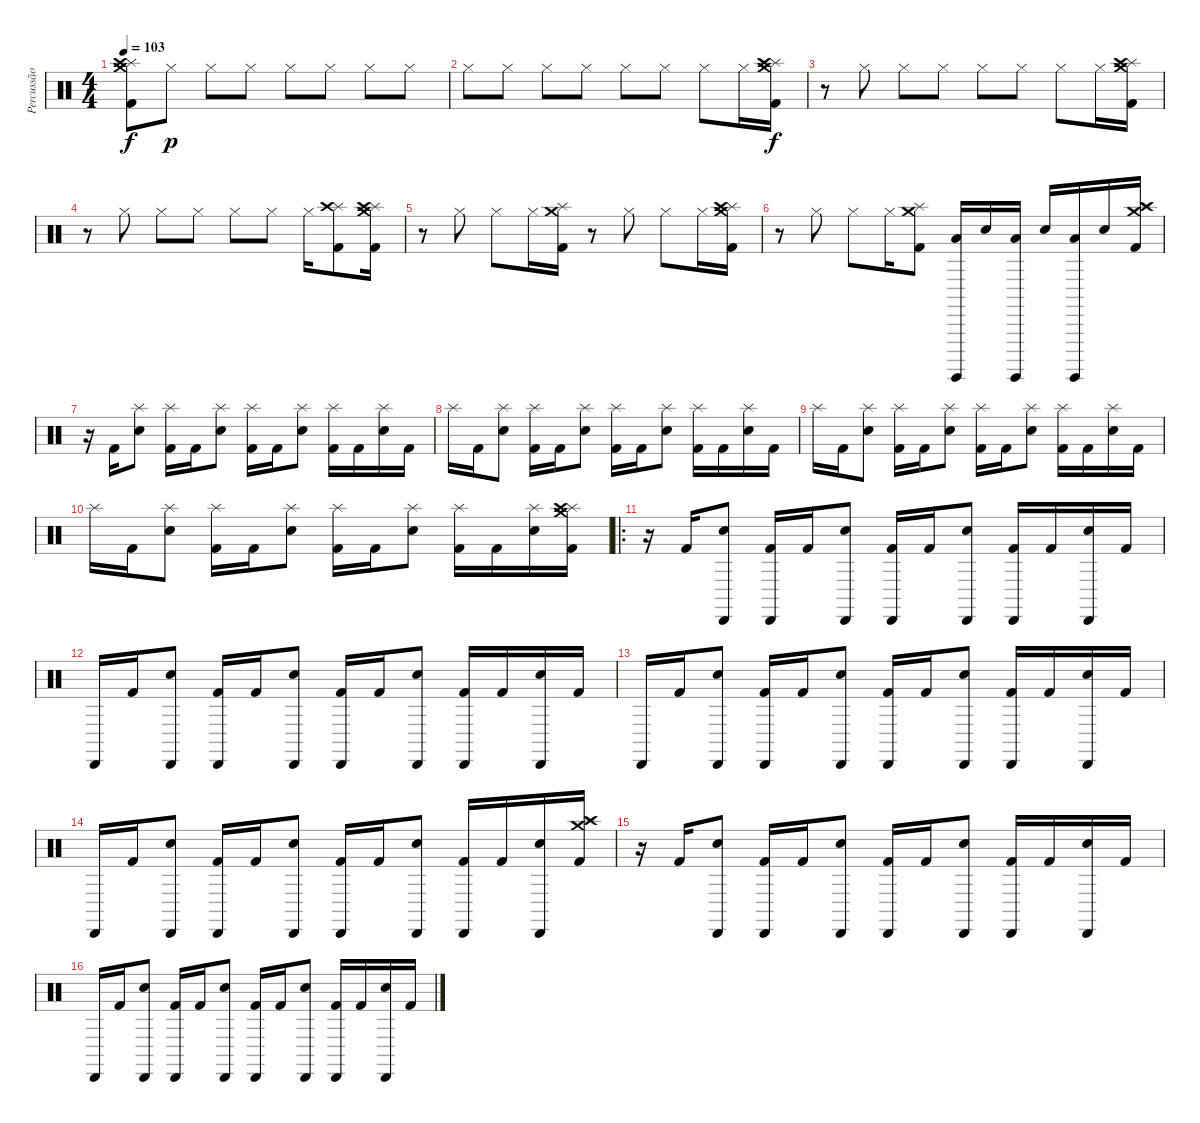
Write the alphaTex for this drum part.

\track ("Percussão" "Percussão") {instrument percussion}
\staff {score}
\articulation defaults
\ts (4 4)
\tempo 103
\clef neutral
\ks c
("Crash medium (hit)" "Splash (hit)" "Crash high (hit)" "Kick (hit) 2").8{dy f} "Hi-Hat (closed)".8{dy p} "Hi-Hat (closed)".8 "Hi-Hat (closed)".8 "Hi-Hat (closed)".8 "Hi-Hat (closed)".8 "Hi-Hat (closed)".8 "Hi-Hat (closed)".8 |
"Hi-Hat (closed)".8 "Hi-Hat (closed)".8 "Hi-Hat (closed)".8 "Hi-Hat (closed)".8 "Hi-Hat (closed)".8 "Hi-Hat (closed)".8 "Hi-Hat (closed)".8 "Hi-Hat (closed)".16 ("Crash medium (hit)" "Splash (hit)" "Crash high (hit)" "Kick (hit) 2").16{dy f} |
r.8 "Hi-Hat (closed)".8 "Hi-Hat (closed)".8 "Hi-Hat (closed)".8 "Hi-Hat (closed)".8 "Hi-Hat (closed)".8 "Hi-Hat (closed)".8 "Hi-Hat (closed)".16 ("Crash medium (hit)" "Splash (hit)" "Crash high (hit)" "Kick (hit) 2").16 |
r.8 "Hi-Hat (closed)".8 "Hi-Hat (closed)".8 "Hi-Hat (closed)".8 "Hi-Hat (closed)".8 "Hi-Hat (closed)".8 "Hi-Hat (closed)".16 ("Splash (hit)" "Crash high (hit)" "Kick (hit) 2").8 ("Crash medium (hit)" "Splash (hit)" "Crash high (hit)" "Kick (hit) 2").16 |
r.8 "Hi-Hat (closed)".8 "Hi-Hat (closed)".8 "Hi-Hat (closed)".16 ("Crash medium (hit)" "Splash (hit)" "Kick (hit) 2").16 r.8 "Hi-Hat (closed)".8 "Hi-Hat (closed)".8 "Hi-Hat (closed)".16 ("Crash medium (hit)" "Splash (hit)" "Crash high (hit)" "Kick (hit) 2").16 |
r.8 "Hi-Hat (closed)".8 "Hi-Hat (closed)".8 "Hi-Hat (closed)".16 ("Crash medium (hit)" "Splash (hit)" "Kick (hit) 2").8 ("Surdo (hit)" "Low Floor Tom (hit)").16 "Electric Snare (hit)".16 ("Surdo (hit)" "Low Floor Tom (hit)").16 "Electric Snare (hit)".16 ("Surdo (hit)" "Low Floor Tom (hit)").16 "Electric Snare (hit)".16 ("Crash medium (hit)" "Splash (hit)" "Crash high (hit)" "Kick (hit) 2").16 |
r.16 "Kick (hit) 2".16 ("Splash (hit)" "Electric Snare (hit)").8 ("Splash (hit)" "Kick (hit) 2").16 "Kick (hit) 2".16 ("Splash (hit)" "Electric Snare (hit)").8 ("Splash (hit)" "Kick (hit) 2").16 "Kick (hit) 2".16 ("Splash (hit)" "Electric Snare (hit)").8 ("Splash (hit)" "Kick (hit) 2").16 "Kick (hit) 2".16 ("Splash (hit)" "Electric Snare (hit)").16 "Kick (hit) 2".16 |
"Splash (hit)".16 "Kick (hit) 2".16 ("Splash (hit)" "Electric Snare (hit)").8 ("Splash (hit)" "Kick (hit) 2").16 "Kick (hit) 2".16 ("Splash (hit)" "Electric Snare (hit)").8 ("Splash (hit)" "Kick (hit) 2").16 "Kick (hit) 2".16 ("Splash (hit)" "Electric Snare (hit)").8 ("Splash (hit)" "Kick (hit) 2").16 "Kick (hit) 2".16 ("Splash (hit)" "Electric Snare (hit)").16 "Kick (hit) 2".16 |
"Splash (hit)".16 "Kick (hit) 2".16 ("Splash (hit)" "Electric Snare (hit)").8 ("Splash (hit)" "Kick (hit) 2").16 "Kick (hit) 2".16 ("Splash (hit)" "Electric Snare (hit)").8 ("Splash (hit)" "Kick (hit) 2").16 "Kick (hit) 2".16 ("Splash (hit)" "Electric Snare (hit)").8 ("Splash (hit)" "Kick (hit) 2").16 "Kick (hit) 2".16 ("Splash (hit)" "Electric Snare (hit)").16 "Kick (hit) 2".16 |
"Splash (hit)".16 "Kick (hit) 2".16 ("Splash (hit)" "Electric Snare (hit)").8 ("Splash (hit)" "Kick (hit) 2").16 "Kick (hit) 2".16 ("Splash (hit)" "Electric Snare (hit)").8 ("Splash (hit)" "Kick (hit) 2").16 "Kick (hit) 2".16 ("Splash (hit)" "Electric Snare (hit)").8 ("Splash (hit)" "Kick (hit) 2").16 "Kick (hit) 2".16 ("Splash (hit)" "Electric Snare (hit)").16 ("Crash medium (hit)" "Splash (hit)" "Crash high (hit)" "Kick (hit) 2").16 |
\ro
r.16 "Kick (hit) 2".16 ("Cabasa (hit)" "Electric Snare (hit)").8 ("Cabasa (hit)" "Kick (hit) 2").16 "Kick (hit) 2".16 ("Cabasa (hit)" "Electric Snare (hit)").8 ("Cabasa (hit)" "Kick (hit) 2").16 "Kick (hit) 2".16 ("Cabasa (hit)" "Electric Snare (hit)").8 ("Cabasa (hit)" "Kick (hit) 2").16 "Kick (hit) 2".16 ("Cabasa (hit)" "Electric Snare (hit)").16 "Kick (hit) 2".16 |
"Cabasa (hit)".16 "Kick (hit) 2".16 ("Cabasa (hit)" "Electric Snare (hit)").8 ("Cabasa (hit)" "Kick (hit) 2").16 "Kick (hit) 2".16 ("Cabasa (hit)" "Electric Snare (hit)").8 ("Cabasa (hit)" "Kick (hit) 2").16 "Kick (hit) 2".16 ("Cabasa (hit)" "Electric Snare (hit)").8 ("Cabasa (hit)" "Kick (hit) 2").16 "Kick (hit) 2".16 ("Cabasa (hit)" "Electric Snare (hit)").16 "Kick (hit) 2".16 |
"Cabasa (hit)".16 "Kick (hit) 2".16 ("Cabasa (hit)" "Electric Snare (hit)").8 ("Cabasa (hit)" "Kick (hit) 2").16 "Kick (hit) 2".16 ("Cabasa (hit)" "Electric Snare (hit)").8 ("Cabasa (hit)" "Kick (hit) 2").16 "Kick (hit) 2".16 ("Cabasa (hit)" "Electric Snare (hit)").8 ("Cabasa (hit)" "Kick (hit) 2").16 "Kick (hit) 2".16 ("Cabasa (hit)" "Electric Snare (hit)").16 "Kick (hit) 2".16 |
"Cabasa (hit)".16 "Kick (hit) 2".16 ("Cabasa (hit)" "Electric Snare (hit)").8 ("Cabasa (hit)" "Kick (hit) 2").16 "Kick (hit) 2".16 ("Cabasa (hit)" "Electric Snare (hit)").8 ("Cabasa (hit)" "Kick (hit) 2").16 "Kick (hit) 2".16 ("Cabasa (hit)" "Electric Snare (hit)").8 ("Cabasa (hit)" "Kick (hit) 2").16 "Kick (hit) 2".16 ("Cabasa (hit)" "Electric Snare (hit)").16 ("Crash medium (hit)" "Splash (hit)" "Crash high (hit)" "Kick (hit) 2").16 |
r.16 "Kick (hit) 2".16 ("Cabasa (hit)" "Electric Snare (hit)").8 ("Cabasa (hit)" "Kick (hit) 2").16 "Kick (hit) 2".16 ("Cabasa (hit)" "Electric Snare (hit)").8 ("Cabasa (hit)" "Kick (hit) 2").16 "Kick (hit) 2".16 ("Cabasa (hit)" "Electric Snare (hit)").8 ("Cabasa (hit)" "Kick (hit) 2").16 "Kick (hit) 2".16 ("Cabasa (hit)" "Electric Snare (hit)").16 "Kick (hit) 2".16 |
"Cabasa (hit)".16 "Kick (hit) 2".16 ("Cabasa (hit)" "Electric Snare (hit)").8 ("Cabasa (hit)" "Kick (hit) 2").16 "Kick (hit) 2".16 ("Cabasa (hit)" "Electric Snare (hit)").8 ("Cabasa (hit)" "Kick (hit) 2").16 "Kick (hit) 2".16 ("Cabasa (hit)" "Electric Snare (hit)").8 ("Cabasa (hit)" "Kick (hit) 2").16 "Kick (hit) 2".16 ("Cabasa (hit)" "Electric Snare (hit)").16 "Kick (hit) 2".16
